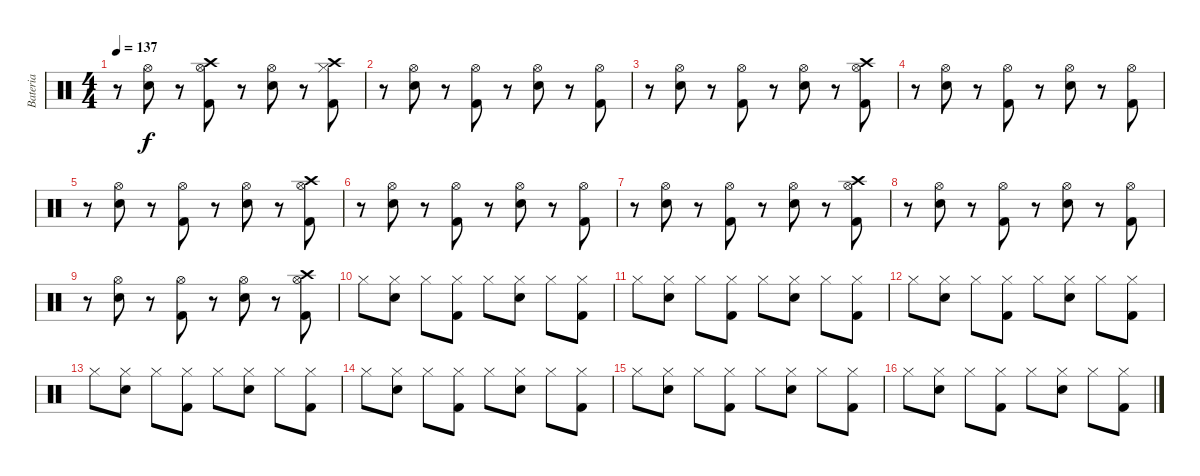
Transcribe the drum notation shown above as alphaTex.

\track ("Bateria" "Bateria") {instrument percussion}
\staff {score}
\articulation defaults
\ts (4 4)
\tempo 137
\clef neutral
\ks c
r.8{dy f} ("Snare (hit) 2" "Hi-Hat (open)").8 r.8 ("Kick (hit) 2" "Hi-Hat (open)" "Crash high (hit)").8 r.8 ("Snare (hit) 2" "Hi-Hat (open)").8 r.8 ("Kick (hit) 2" "Hi-Hat (closed)" "Crash high (hit)").8 |
r.8 ("Snare (hit) 2" "Hi-Hat (open)").8 r.8 ("Kick (hit) 2" "Hi-Hat (open)").8 r.8 ("Snare (hit) 2" "Hi-Hat (open)").8 r.8 ("Kick (hit) 2" "Hi-Hat (open)").8 |
r.8 ("Snare (hit) 2" "Hi-Hat (open)").8 r.8 ("Kick (hit) 2" "Hi-Hat (open)").8 r.8 ("Snare (hit) 2" "Hi-Hat (open)").8 r.8 ("Kick (hit) 2" "Hi-Hat (open)" "Crash high (hit)").8 |
r.8 ("Snare (hit) 2" "Hi-Hat (open)").8 r.8 ("Kick (hit) 2" "Hi-Hat (open)").8 r.8 ("Snare (hit) 2" "Hi-Hat (open)").8 r.8 ("Kick (hit) 2" "Hi-Hat (open)").8 |
r.8 ("Snare (hit) 2" "Hi-Hat (open)").8 r.8 ("Kick (hit) 2" "Hi-Hat (open)").8 r.8 ("Snare (hit) 2" "Hi-Hat (open)").8 r.8 ("Kick (hit) 2" "Hi-Hat (open)" "Crash high (hit)").8 |
r.8 ("Snare (hit) 2" "Hi-Hat (open)").8 r.8 ("Kick (hit) 2" "Hi-Hat (open)").8 r.8 ("Snare (hit) 2" "Hi-Hat (open)").8 r.8 ("Kick (hit) 2" "Hi-Hat (open)").8 |
r.8 ("Snare (hit) 2" "Hi-Hat (open)").8 r.8 ("Kick (hit) 2" "Hi-Hat (open)").8 r.8 ("Snare (hit) 2" "Hi-Hat (open)").8 r.8 ("Kick (hit) 2" "Hi-Hat (open)" "Crash high (hit)").8 |
r.8 ("Snare (hit) 2" "Hi-Hat (open)").8 r.8 ("Kick (hit) 2" "Hi-Hat (open)").8 r.8 ("Snare (hit) 2" "Hi-Hat (open)").8 r.8 ("Kick (hit) 2" "Hi-Hat (open)").8 |
r.8 ("Snare (hit) 2" "Hi-Hat (open)").8 r.8 ("Kick (hit) 2" "Hi-Hat (open)").8 r.8 ("Snare (hit) 2" "Hi-Hat (open)").8 r.8 ("Kick (hit) 2" "Hi-Hat (open)" "Crash high (hit)").8 |
"Hi-Hat (closed)".8 ("Electric Snare (hit)" "Hi-Hat (closed)").8 "Hi-Hat (closed)".8 ("Kick (hit) 2" "Hi-Hat (closed)").8 "Hi-Hat (closed)".8 ("Electric Snare (hit)" "Hi-Hat (closed)").8 "Hi-Hat (closed)".8 ("Kick (hit) 2" "Hi-Hat (closed)").8 |
"Hi-Hat (closed)".8 ("Electric Snare (hit)" "Hi-Hat (closed)").8 "Hi-Hat (closed)".8 ("Kick (hit) 2" "Hi-Hat (closed)").8 "Hi-Hat (closed)".8 ("Electric Snare (hit)" "Hi-Hat (closed)").8 "Hi-Hat (closed)".8 ("Kick (hit) 2" "Hi-Hat (closed)").8 |
"Hi-Hat (closed)".8 ("Electric Snare (hit)" "Hi-Hat (closed)").8 "Hi-Hat (closed)".8 ("Kick (hit) 2" "Hi-Hat (closed)").8 "Hi-Hat (closed)".8 ("Electric Snare (hit)" "Hi-Hat (closed)").8 "Hi-Hat (closed)".8 ("Kick (hit) 2" "Hi-Hat (closed)").8 |
"Hi-Hat (closed)".8 ("Electric Snare (hit)" "Hi-Hat (closed)").8 "Hi-Hat (closed)".8 ("Kick (hit) 2" "Hi-Hat (closed)").8 "Hi-Hat (closed)".8 ("Electric Snare (hit)" "Hi-Hat (closed)").8 "Hi-Hat (closed)".8 ("Kick (hit) 2" "Hi-Hat (closed)").8 |
"Hi-Hat (closed)".8 ("Electric Snare (hit)" "Hi-Hat (closed)").8 "Hi-Hat (closed)".8 ("Kick (hit) 2" "Hi-Hat (closed)").8 "Hi-Hat (closed)".8 ("Electric Snare (hit)" "Hi-Hat (closed)").8 "Hi-Hat (closed)".8 ("Kick (hit) 2" "Hi-Hat (closed)").8 |
"Hi-Hat (closed)".8 ("Electric Snare (hit)" "Hi-Hat (closed)").8 "Hi-Hat (closed)".8 ("Kick (hit) 2" "Hi-Hat (closed)").8 "Hi-Hat (closed)".8 ("Electric Snare (hit)" "Hi-Hat (closed)").8 "Hi-Hat (closed)".8 ("Kick (hit) 2" "Hi-Hat (closed)").8 |
"Hi-Hat (closed)".8 ("Electric Snare (hit)" "Hi-Hat (closed)").8 "Hi-Hat (closed)".8 ("Kick (hit) 2" "Hi-Hat (closed)").8 "Hi-Hat (closed)".8 ("Electric Snare (hit)" "Hi-Hat (closed)").8 "Hi-Hat (closed)".8 ("Kick (hit) 2" "Hi-Hat (closed)").8
